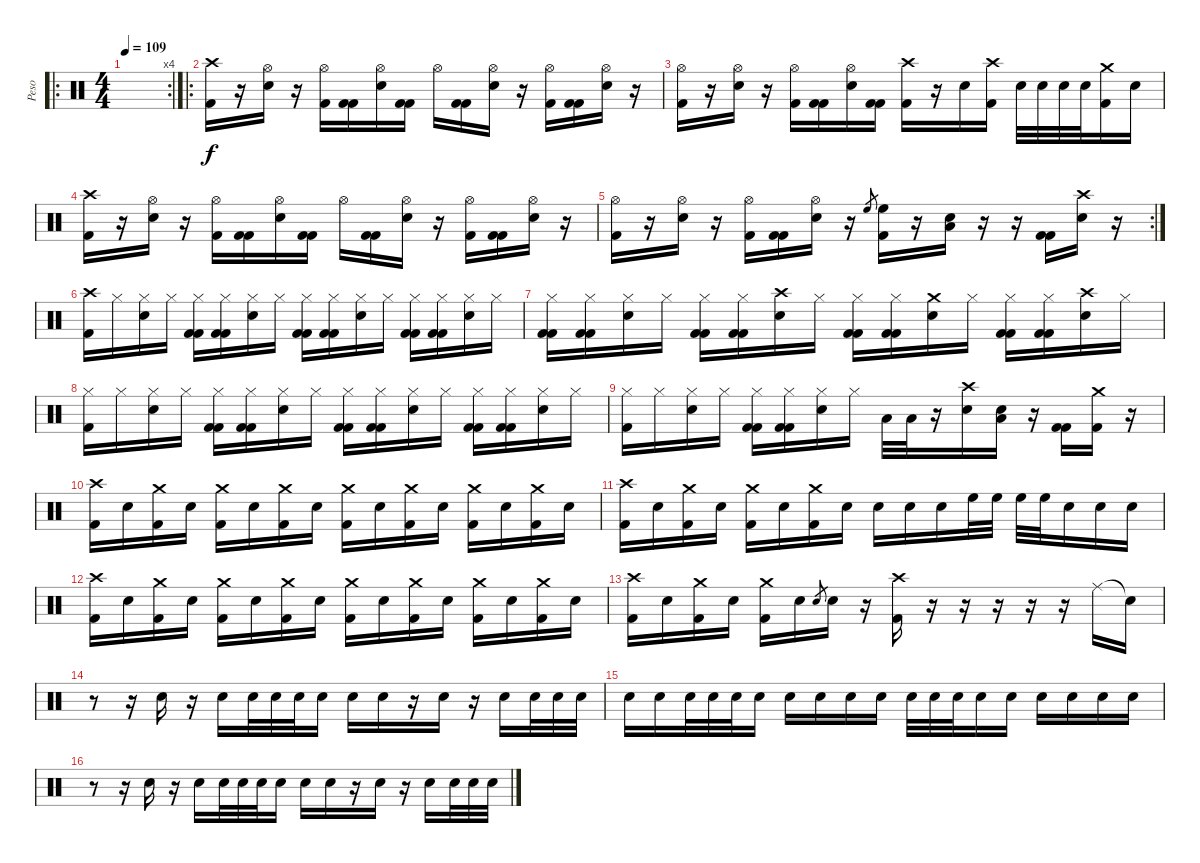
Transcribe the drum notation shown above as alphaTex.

\track ("Peso" "Peso") {instrument percussion}
\staff {score}
\articulation defaults
\ro
\rc 4
\ts (4 4)
\tempo 109
\clef neutral
\ks c
|
\ro
("Crash high (hit)" "Kick (hit) 2").16 r.16 ("Hi-Hat (open)" "Snare (hit) 2").16 r.16 ("Hi-Hat (open)" "Kick (hit) 2").16 ("Kick (hit) 2" "Kick (hit) 2").16 ("Hi-Hat (open)" "Snare (hit) 2").16 ("Kick (hit) 2" "Kick (hit) 2").16 "Hi-Hat (open)".16 ("Kick (hit) 2" "Kick (hit) 2").16 ("Hi-Hat (open)" "Snare (hit) 2").16 r.16 ("Hi-Hat (open)" "Kick (hit) 2").16 ("Kick (hit) 2" "Kick (hit) 2").16 ("Hi-Hat (open)" "Snare (hit) 2").16 r.16 |
("Hi-Hat (open)" "Kick (hit) 2").16 r.16 ("Hi-Hat (open)" "Snare (hit) 2").16 r.16 ("Hi-Hat (open)" "Kick (hit) 2").16 ("Kick (hit) 2" "Kick (hit) 2").16 ("Hi-Hat (open)" "Snare (hit) 2").16 ("Kick (hit) 2" "Kick (hit) 2").16 ("Crash high (hit)" "Kick (hit) 2").16 r.16 "Snare (hit) 2".16 ("Crash high (hit)" "Kick (hit) 2").16 "Snare (hit) 2".32 "Snare (hit) 2".32 "Snare (hit) 2".32 "Snare (hit) 2".32 ("Crash medium (hit)" "Kick (hit) 2").16 "Snare (hit) 2".16 |
("Crash high (hit)" "Kick (hit) 2").16 r.16 ("Hi-Hat (open)" "Snare (hit) 2").16 r.16 ("Hi-Hat (open)" "Kick (hit) 2").16 ("Kick (hit) 2" "Kick (hit) 2").16 ("Hi-Hat (open)" "Snare (hit) 2").16 ("Kick (hit) 2" "Kick (hit) 2").16 "Hi-Hat (open)".16 ("Kick (hit) 2" "Kick (hit) 2").16 ("Hi-Hat (open)" "Snare (hit) 2").16 r.16 ("Hi-Hat (open)" "Kick (hit) 2").16 ("Kick (hit) 2" "Kick (hit) 2").16 ("Hi-Hat (open)" "Snare (hit) 2").16 r.16 |
\rc 2
("Hi-Hat (open)" "Kick (hit) 2").16 r.16 ("Hi-Hat (open)" "Snare (hit) 2").16 r.16 ("Hi-Hat (open)" "Kick (hit) 2").16 ("Kick (hit) 2" "Kick (hit) 2").16 ("Hi-Hat (open)" "Snare (hit) 2").16 r.16 "High Floor Tom (hit)".8{gr} ("High Floor Tom (hit)" "Kick (hit) 2").16 r.16 ("Low Floor Tom (hit)" "Snare (hit) 2").16 r.16 r.16 ("Kick (hit) 2" "Kick (hit) 2").16 ("Crash high (hit)" "Snare (hit) 2").16 r.16 |
("Crash high (hit)" "Kick (hit) 2").16 "Hi-Hat (closed)".16 ("Hi-Hat (closed)" "Snare (hit) 2").16 "Hi-Hat (closed)".16 ("Hi-Hat (closed)" "Kick (hit) 2" "Kick (hit) 2").16 ("Hi-Hat (closed)" "Kick (hit) 2" "Kick (hit) 2").16 ("Hi-Hat (closed)" "Snare (hit) 2").16 "Hi-Hat (closed)".16 ("Hi-Hat (closed)" "Kick (hit) 2" "Kick (hit) 2").16 ("Hi-Hat (closed)" "Kick (hit) 2" "Kick (hit) 2").16 ("Hi-Hat (closed)" "Snare (hit) 2").16 "Hi-Hat (closed)".16 ("Hi-Hat (closed)" "Kick (hit) 2" "Kick (hit) 2").16 ("Hi-Hat (closed)" "Kick (hit) 2" "Kick (hit) 2").16 ("Hi-Hat (closed)" "Snare (hit) 2").16 "Hi-Hat (closed)".16 |
("Hi-Hat (closed)" "Kick (hit) 2" "Kick (hit) 2").16 ("Hi-Hat (closed)" "Kick (hit) 2" "Kick (hit) 2").16 ("Hi-Hat (closed)" "Snare (hit) 2").16 "Hi-Hat (closed)".16 ("Hi-Hat (closed)" "Kick (hit) 2" "Kick (hit) 2").16 ("Hi-Hat (closed)" "Kick (hit) 2" "Kick (hit) 2").16 ("Crash high (hit)" "Snare (hit) 2").16 "Hi-Hat (closed)".16 ("Hi-Hat (closed)" "Kick (hit) 2" "Kick (hit) 2").16 ("Hi-Hat (closed)" "Kick (hit) 2" "Kick (hit) 2").16 ("Crash medium (hit)" "Snare (hit) 2").16 "Hi-Hat (closed)".16 ("Hi-Hat (closed)" "Kick (hit) 2" "Kick (hit) 2").16 ("Hi-Hat (closed)" "Kick (hit) 2" "Kick (hit) 2").16 ("Crash high (hit)" "Snare (hit) 2").16 "Hi-Hat (closed)".16 |
("Hi-Hat (closed)" "Kick (hit) 2").16 "Hi-Hat (closed)".16 ("Hi-Hat (closed)" "Snare (hit) 2").16 "Hi-Hat (closed)".16 ("Hi-Hat (closed)" "Kick (hit) 2" "Kick (hit) 2").16 ("Hi-Hat (closed)" "Kick (hit) 2" "Kick (hit) 2").16 ("Hi-Hat (closed)" "Snare (hit) 2").16 "Hi-Hat (closed)".16 ("Hi-Hat (closed)" "Kick (hit) 2" "Kick (hit) 2").16 ("Hi-Hat (closed)" "Kick (hit) 2" "Kick (hit) 2").16 ("Hi-Hat (closed)" "Snare (hit) 2").16 "Hi-Hat (closed)".16 ("Hi-Hat (closed)" "Kick (hit) 2" "Kick (hit) 2").16 ("Hi-Hat (closed)" "Kick (hit) 2" "Kick (hit) 2").16 ("Hi-Hat (closed)" "Snare (hit) 2").16 "Hi-Hat (closed)".16 |
("Hi-Hat (closed)" "Kick (hit) 2").16 "Hi-Hat (closed)".16 ("Hi-Hat (closed)" "Snare (hit) 2").16 "Hi-Hat (closed)".16 ("Hi-Hat (closed)" "Kick (hit) 2" "Kick (hit) 2").16 ("Hi-Hat (closed)" "Kick (hit) 2" "Kick (hit) 2").16 ("Hi-Hat (closed)" "Snare (hit) 2").16 "Hi-Hat (closed)".16 "Low Floor Tom (hit)".32 "Low Floor Tom (hit)".32 r.16 ("Crash high (hit)" "Snare (hit) 2").16 ("Low Floor Tom (hit)" "Snare (hit) 2").16 r.16 ("Kick (hit) 2" "Kick (hit) 2").16 ("Crash medium (hit)" "Kick (hit) 2").16 r.16 |
("Crash high (hit)" "Kick (hit) 2").16 "Snare (hit) 2".16 ("Crash medium (hit)" "Kick (hit) 2").16 "Snare (hit) 2".16 ("Crash medium (hit)" "Kick (hit) 2").16 "Snare (hit) 2".16 ("Crash medium (hit)" "Kick (hit) 2").16 "Snare (hit) 2".16 ("Crash medium (hit)" "Kick (hit) 2").16 "Snare (hit) 2".16 ("Crash medium (hit)" "Kick (hit) 2").16 "Snare (hit) 2".16 ("Crash medium (hit)" "Kick (hit) 2").16 "Snare (hit) 2".16 ("Crash medium (hit)" "Kick (hit) 2").16 "Snare (hit) 2".16 |
("Crash high (hit)" "Kick (hit) 2").16 "Snare (hit) 2".16 ("Crash medium (hit)" "Kick (hit) 2").16 "Snare (hit) 2".16 ("Crash medium (hit)" "Kick (hit) 2").16 "Snare (hit) 2".16 ("Crash medium (hit)" "Kick (hit) 2").16 "Snare (hit) 2".16 "Snare (hit) 2".16 "Snare (hit) 2".16 "Snare (hit) 2".16 "High Floor Tom (hit)".32 "High Floor Tom (hit)".32 "High Floor Tom (hit)".32 "High Floor Tom (hit)".32 "Snare (hit) 2".16 "Snare (hit) 2".16 "Snare (hit) 2".16 |
("Crash high (hit)" "Kick (hit) 2").16 "Snare (hit) 2".16 ("Crash medium (hit)" "Kick (hit) 2").16 "Snare (hit) 2".16 ("Crash medium (hit)" "Kick (hit) 2").16 "Snare (hit) 2".16 ("Crash medium (hit)" "Kick (hit) 2").16 "Snare (hit) 2".16 ("Crash medium (hit)" "Kick (hit) 2").16 "Snare (hit) 2".16 ("Crash medium (hit)" "Kick (hit) 2").16 "Snare (hit) 2".16 ("Crash medium (hit)" "Kick (hit) 2").16 "Snare (hit) 2".16 ("Crash medium (hit)" "Kick (hit) 2").16 "Snare (hit) 2".16 |
("Crash high (hit)" "Kick (hit) 2").16 "Snare (hit) 2".16 ("Crash medium (hit)" "Kick (hit) 2").16 "Snare (hit) 2".16 ("Crash medium (hit)" "Kick (hit) 2").16 "Snare (hit)"{x}.16 "Snare (hit) 2".8{gr} "Snare (hit) 2".16 r.16 ("Crash high (hit)" "Kick (hit) 2").16 r.16 r.16 r.16 r.16 r.16 "Ride (middle)".16 "Snare (hit)"{t}.16 |
r.8 r.16 "Snare (hit) 2".16{volume 9} r.16 "Snare (hit) 2".16 "Snare (hit) 2".32 "Snare (hit) 2".32 "Snare (hit) 2".32 "Snare (hit) 2".16 "Snare (hit) 2".16 "Snare (hit) 2".16 r.16 "Snare (hit) 2".16 r.16 "Snare (hit) 2".16 "Snare (hit) 2".32 "Snare (hit) 2".32 "Snare (hit) 2".32 |
"Snare (hit) 2".16 "Snare (hit) 2".16 "Snare (hit) 2".32 "Snare (hit) 2".32 "Snare (hit) 2".32 "Snare (hit) 2".16 "Snare (hit) 2".16 "Snare (hit) 2".16 "Snare (hit) 2".16 "Snare (hit) 2".16 "Snare (hit) 2".32 "Snare (hit) 2".32 "Snare (hit) 2".32 "Snare (hit) 2".16 "Snare (hit) 2".16 "Snare (hit) 2".16 "Snare (hit) 2".16 "Snare (hit) 2".16 "Snare (hit) 2".16 |
r.8 r.16 "Snare (hit) 2".16{volume 9} r.16 "Snare (hit) 2".16 "Snare (hit) 2".32 "Snare (hit) 2".32 "Snare (hit) 2".32 "Snare (hit) 2".16{volume 10} "Snare (hit) 2".16 "Snare (hit) 2".16 r.16 "Snare (hit) 2".16 r.16 "Snare (hit) 2".16 "Snare (hit) 2".32 "Snare (hit) 2".32{volume 11} "Snare (hit) 2".32
